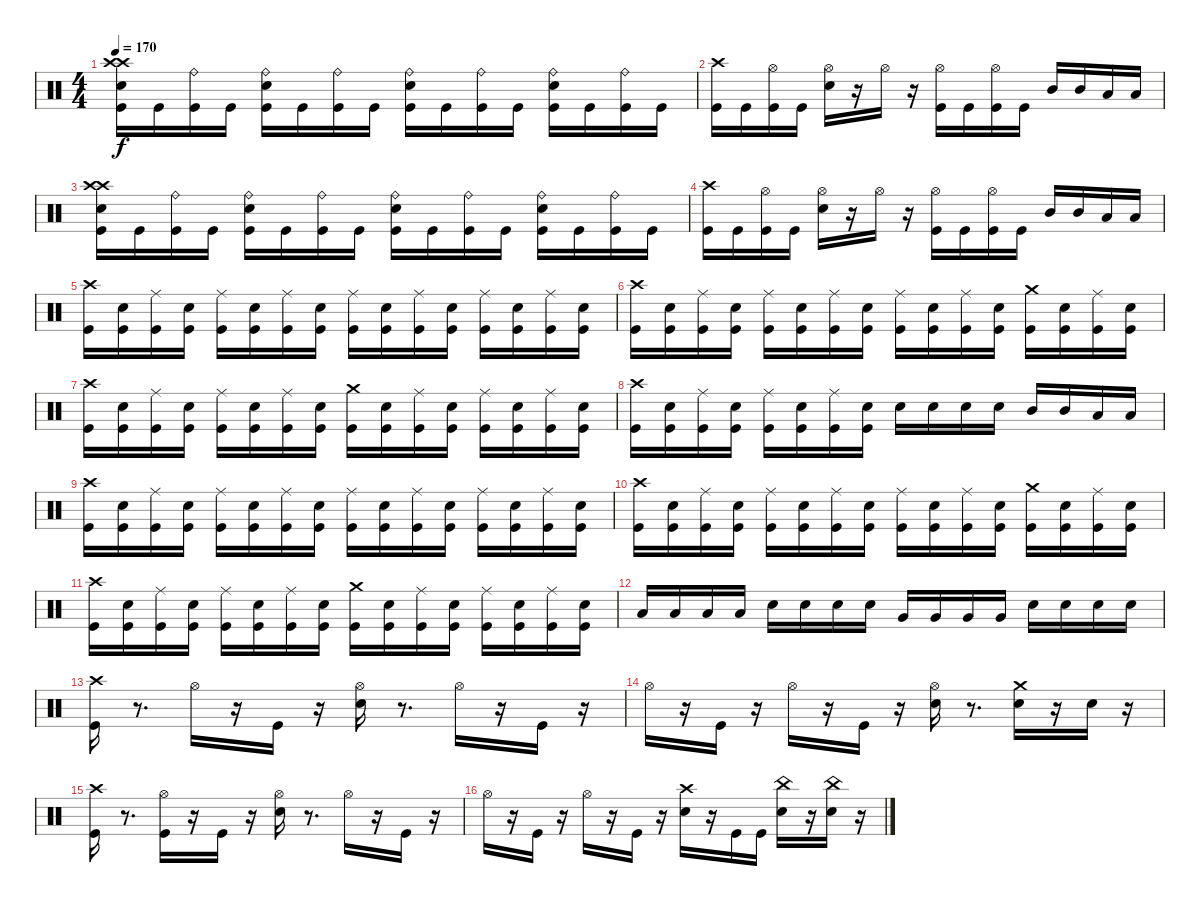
\track "" {instrument percussion}
\staff {score}
\articulation defaults
\ts (4 4)
\tempo 170
\clef neutral
\ks c
("Kick (hit)" "Crash high (hit)" "Snare (hit) 2" "Crash high (hit)").16{dy f} "Kick (hit)".16 ("Kick (hit)" "Ride (bell)").16 "Kick (hit)".16 ("Kick (hit)" "Snare (hit) 2" "Ride (bell)").16 "Kick (hit)".16 ("Kick (hit)" "Ride (bell)").16 "Kick (hit)".16 ("Kick (hit)" "Snare (hit) 2" "Ride (bell)").16 "Kick (hit)".16 ("Kick (hit)" "Ride (bell)").16 "Kick (hit)".16 ("Kick (hit)" "Snare (hit) 2" "Ride (bell)").16 "Kick (hit)".16 ("Kick (hit)" "Ride (bell)").16 "Kick (hit)".16 |
("Kick (hit)" "Crash high (hit)").16 "Kick (hit)".16 ("Kick (hit)" "Hi-Hat (open)").16 "Kick (hit)".16 ("Snare (hit) 2" "Hi-Hat (open)").16 r.16 "Hi-Hat (open)".16 r.16 ("Kick (hit)" "Hi-Hat (open)").16 "Kick (hit)".16 ("Kick (hit)" "Hi-Hat (open)").16 "Kick (hit)".16 "Mid Tom (hit)".16 "Mid Tom (hit)".16 "Low Tom (hit)".16 "Low Tom (hit)".16 |
("Kick (hit)" "Crash high (hit)" "Snare (hit) 2" "Crash high (hit)").16 "Kick (hit)".16 ("Kick (hit)" "Ride (bell)").16 "Kick (hit)".16 ("Kick (hit)" "Snare (hit) 2" "Ride (bell)").16 "Kick (hit)".16 ("Kick (hit)" "Ride (bell)").16 "Kick (hit)".16 ("Kick (hit)" "Snare (hit) 2" "Ride (bell)").16 "Kick (hit)".16 ("Kick (hit)" "Ride (bell)").16 "Kick (hit)".16 ("Kick (hit)" "Snare (hit) 2" "Ride (bell)").16 "Kick (hit)".16 ("Kick (hit)" "Ride (bell)").16 "Kick (hit)".16 |
("Kick (hit)" "Crash high (hit)").16 "Kick (hit)".16 ("Kick (hit)" "Hi-Hat (open)").16 "Kick (hit)".16 ("Snare (hit) 2" "Hi-Hat (open)").16 r.16 "Hi-Hat (open)".16 r.16 ("Kick (hit)" "Hi-Hat (open)").16 "Kick (hit)".16 ("Kick (hit)" "Hi-Hat (open)").16 "Kick (hit)".16 "Mid Tom (hit)".16 "Mid Tom (hit)".16 "Low Tom (hit)".16 "Low Tom (hit)".16 |
("Crash high (hit)" "Kick (hit)").16 ("Snare (hit) 2" "Kick (hit)").16 ("Ride (middle)" "Kick (hit)").16 ("Kick (hit)" "Snare (hit) 2").16 ("Ride (middle)" "Kick (hit)").16 ("Snare (hit) 2" "Kick (hit)").16 ("Ride (middle)" "Kick (hit)").16 ("Kick (hit)" "Snare (hit) 2").16 ("Ride (middle)" "Kick (hit)").16 ("Snare (hit) 2" "Kick (hit)").16 ("Ride (middle)" "Kick (hit)").16 ("Snare (hit) 2" "Kick (hit)").16 ("Ride (middle)" "Kick (hit)").16 ("Snare (hit) 2" "Kick (hit)").16 ("Ride (middle)" "Kick (hit)").16 ("Kick (hit)" "Snare (hit) 2").16 |
("Crash high (hit)" "Kick (hit)").16 ("Snare (hit) 2" "Kick (hit)").16 ("Ride (middle)" "Kick (hit)").16 ("Snare (hit) 2" "Kick (hit)").16 ("Ride (middle)" "Kick (hit)").16 ("Snare (hit) 2" "Kick (hit)").16 ("Ride (middle)" "Kick (hit)").16 ("Snare (hit) 2" "Kick (hit)").16 ("Ride (middle)" "Kick (hit)").16 ("Snare (hit) 2" "Kick (hit)").16 ("Ride (middle)" "Kick (hit)").16 ("Kick (hit)" "Snare (hit) 2").16 ("Crash medium (hit)" "Kick (hit)").16 ("Snare (hit) 2" "Kick (hit)").16 ("Ride (middle)" "Kick (hit)").16 ("Snare (hit) 2" "Kick (hit)").16 |
("Kick (hit)" "Crash high (hit)").16 ("Snare (hit) 2" "Kick (hit)").16 ("Kick (hit)" "Ride (middle)").16 ("Snare (hit) 2" "Kick (hit)").16 ("Kick (hit)" "Ride (middle)").16 ("Snare (hit) 2" "Kick (hit)").16 ("Kick (hit)" "Ride (middle)").16 ("Snare (hit) 2" "Kick (hit)").16 ("Kick (hit)" "Crash medium (hit)").16 ("Snare (hit) 2" "Kick (hit)").16 ("Kick (hit)" "Ride (middle)").16 ("Snare (hit) 2" "Kick (hit)").16 ("Kick (hit)" "Ride (middle)").16 ("Snare (hit) 2" "Kick (hit)").16 ("Kick (hit)" "Ride (middle)").16 ("Snare (hit) 2" "Kick (hit)").16 |
("Kick (hit)" "Crash high (hit)").16 ("Snare (hit) 2" "Kick (hit)").16 ("Kick (hit)" "Ride (middle)").16 ("Snare (hit) 2" "Kick (hit)").16 ("Kick (hit)" "Ride (middle)").16 ("Snare (hit) 2" "Kick (hit)").16 ("Kick (hit)" "Ride (middle)").16 ("Kick (hit)" "Snare (hit) 2").16 "Snare (hit) 2".16 "Snare (hit) 2".16 "Snare (hit) 2".16 "Snare (hit) 2".16 "Mid Tom (hit)".16 "Mid Tom (hit)".16 "Low Tom (hit)".16 "Low Tom (hit)".16 |
("Crash high (hit)" "Kick (hit)").16 ("Snare (hit) 2" "Kick (hit)").16 ("Ride (middle)" "Kick (hit)").16 ("Snare (hit) 2" "Kick (hit)").16 ("Ride (middle)" "Kick (hit)").16 ("Snare (hit) 2" "Kick (hit)").16 ("Ride (middle)" "Kick (hit)").16 ("Kick (hit)" "Snare (hit) 2").16 ("Ride (middle)" "Kick (hit)").16 ("Snare (hit) 2" "Kick (hit)").16 ("Ride (middle)" "Kick (hit)").16 ("Snare (hit) 2" "Kick (hit)").16 ("Ride (middle)" "Kick (hit)").16 ("Snare (hit) 2" "Kick (hit)").16 ("Ride (middle)" "Kick (hit)").16 ("Snare (hit) 2" "Kick (hit)").16 |
("Crash high (hit)" "Kick (hit)").16 ("Snare (hit) 2" "Kick (hit)").16 ("Ride (middle)" "Kick (hit)").16 ("Snare (hit) 2" "Kick (hit)").16 ("Ride (middle)" "Kick (hit)").16 ("Snare (hit) 2" "Kick (hit)").16 ("Ride (middle)" "Kick (hit)").16 ("Snare (hit) 2" "Kick (hit)").16 ("Ride (middle)" "Kick (hit)").16 ("Snare (hit) 2" "Kick (hit)").16 ("Ride (middle)" "Kick (hit)").16 ("Snare (hit) 2" "Kick (hit)").16 ("Crash medium (hit)" "Kick (hit)").16 ("Snare (hit) 2" "Kick (hit)").16 ("Ride (middle)" "Kick (hit)").16 ("Snare (hit) 2" "Kick (hit)").16 |
("Kick (hit)" "Crash high (hit)").16 ("Snare (hit) 2" "Kick (hit)").16 ("Kick (hit)" "Ride (middle)").16 ("Snare (hit) 2" "Kick (hit)").16 ("Kick (hit)" "Ride (middle)").16 ("Snare (hit) 2" "Kick (hit)").16 ("Kick (hit)" "Ride (middle)").16 ("Snare (hit) 2" "Kick (hit)").16 ("Kick (hit)" "Crash medium (hit)").16 ("Snare (hit) 2" "Kick (hit)").16 ("Kick (hit)" "Ride (middle)").16 ("Snare (hit) 2" "Kick (hit)").16 ("Kick (hit)" "Ride (middle)").16 ("Snare (hit) 2" "Kick (hit)").16 ("Kick (hit)" "Ride (middle)").16 ("Snare (hit) 2" "Kick (hit)").16 |
"Low Tom (hit)".16 "Low Tom (hit)".16 "Low Tom (hit)".16 "Low Tom (hit)".16 "Snare (hit) 2".16 "Snare (hit) 2".16 "Snare (hit) 2".16 "Snare (hit) 2".16 "Very Low Tom (hit)".16 "Very Low Tom (hit)".16 "Very Low Tom (hit)".16 "Very Low Tom (hit)".16 "Snare (hit) 2".16 "Snare (hit) 2".16 "Snare (hit) 2".16 "Snare (hit) 2".16 |
("Crash high (hit)" "Kick (hit)").16 r.8{d} "Hi-Hat (open)".16 r.16 "Kick (hit)".16 r.16 ("Snare (hit) 2" "Hi-Hat (open)").16 r.8{d} "Hi-Hat (open)".16 r.16 "Kick (hit)".16 r.16 |
"Hi-Hat (open)".16 r.16 "Kick (hit)".16 r.16 "Hi-Hat (open)".16 r.16 "Kick (hit)".16 r.16 ("Hi-Hat (open)" "Snare (hit) 2").16 r.8{d} ("Snare (hit) 2" "Crash medium (hit)").16 r.16 "Snare (hit) 2".16 r.16 |
("Kick (hit)" "Crash high (hit)").16 r.8{d} ("Hi-Hat (open)" "Kick (hit)").16 r.16 "Kick (hit)".16 r.16 ("Hi-Hat (open)" "Snare (hit) 2").16 r.8{d} "Hi-Hat (open)".16 r.16 "Kick (hit)".16 r.16 |
"Hi-Hat (open)".16 r.16 "Kick (hit)".16 r.16 "Hi-Hat (open)".16 r.16 "Kick (hit)".16 r.16 ("Crash high (hit)" "Snare (hit) 2").16 r.16 "Kick (hit)".16 "Kick (hit)".16 ("China (hit)" "Snare (hit) 2").16 r.16 ("China (hit)" "Snare (hit) 2").16 r.16
